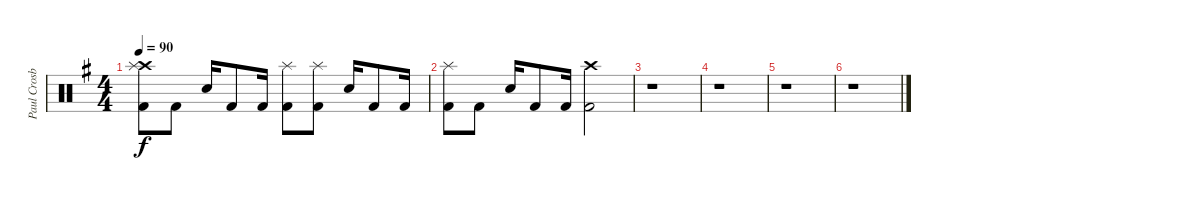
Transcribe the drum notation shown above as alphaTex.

\track ("Paul Crosby (Drums)" "Paul Crosb") {instrument percussion}
\staff {score}
\articulation defaults
\ts (4 4)
\tempo 90
\clef neutral
\ks g
("Crash high (hit)" "Kick (hit) 2" "Splash (hit)").8{dy f} "Kick (hit) 2".8 "Electric Snare (hit)".16 "Kick (hit) 2".8 "Kick (hit) 2".16 ("Kick (hit) 2" "Splash (hit)").8 ("Kick (hit) 2" "Splash (hit)").8 "Electric Snare (hit)".16 "Kick (hit) 2".8 "Kick (hit) 2".16 |
("Kick (hit) 2" "Splash (hit)").8 "Kick (hit) 2".8 "Electric Snare (hit)".16 "Kick (hit) 2".8 "Kick (hit) 2".16 ("Crash high (hit)" "Kick (hit) 2").2 |
r.1 |
r.1 |
r.1 |
r.1
